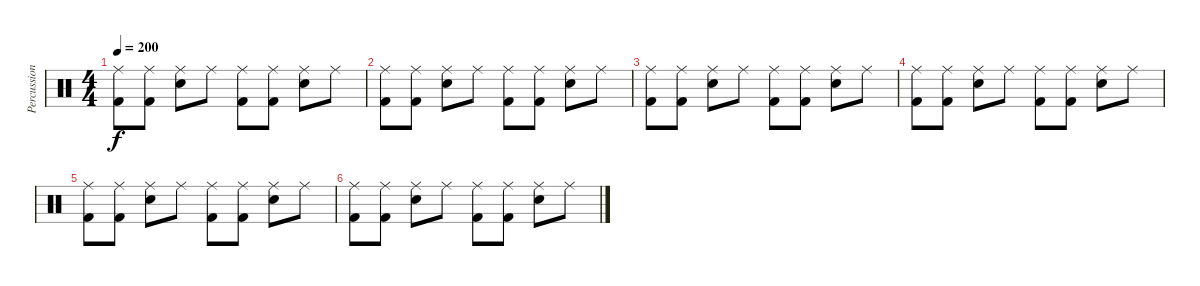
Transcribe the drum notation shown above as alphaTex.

\track ("Percussion" "Percussion") {instrument percussion}
\staff {score}
\articulation defaults
\ts (4 4)
\tempo 200
\clef neutral
\ks c
("Ride (middle)" "Kick (hit) 2").8{dy f} ("Ride (middle)" "Kick (hit) 2").8 ("Ride (middle)" "Snare (hit) 2").8 "Ride (middle)".8 ("Ride (middle)" "Kick (hit) 2").8 ("Ride (middle)" "Kick (hit) 2").8 ("Ride (middle)" "Snare (hit) 2").8 "Ride (middle)".8 |
("Ride (middle)" "Kick (hit) 2").8 ("Ride (middle)" "Kick (hit) 2").8 ("Ride (middle)" "Snare (hit) 2").8 "Ride (middle)".8 ("Ride (middle)" "Kick (hit) 2").8 ("Ride (middle)" "Kick (hit) 2").8 ("Ride (middle)" "Snare (hit) 2").8 "Ride (middle)".8 |
("Ride (middle)" "Kick (hit) 2").8 ("Ride (middle)" "Kick (hit) 2").8 ("Ride (middle)" "Snare (hit) 2").8 "Ride (middle)".8 ("Ride (middle)" "Kick (hit) 2").8 ("Ride (middle)" "Kick (hit) 2").8 ("Ride (middle)" "Snare (hit) 2").8 "Ride (middle)".8 |
("Ride (middle)" "Kick (hit) 2").8 ("Ride (middle)" "Kick (hit) 2").8 ("Ride (middle)" "Snare (hit) 2").8 "Ride (middle)".8 ("Ride (middle)" "Kick (hit) 2").8 ("Ride (middle)" "Kick (hit) 2").8 ("Ride (middle)" "Snare (hit) 2").8 "Ride (middle)".8 |
("Ride (middle)" "Kick (hit) 2").8 ("Ride (middle)" "Kick (hit) 2").8 ("Ride (middle)" "Snare (hit) 2").8 "Ride (middle)".8 ("Ride (middle)" "Kick (hit) 2").8 ("Ride (middle)" "Kick (hit) 2").8 ("Ride (middle)" "Snare (hit) 2").8 "Ride (middle)".8 |
("Ride (middle)" "Kick (hit) 2").8 ("Ride (middle)" "Kick (hit) 2").8 ("Ride (middle)" "Snare (hit) 2").8 "Ride (middle)".8 ("Ride (middle)" "Kick (hit) 2").8 ("Ride (middle)" "Kick (hit) 2").8 ("Ride (middle)" "Snare (hit) 2").8 "Ride (middle)".8
